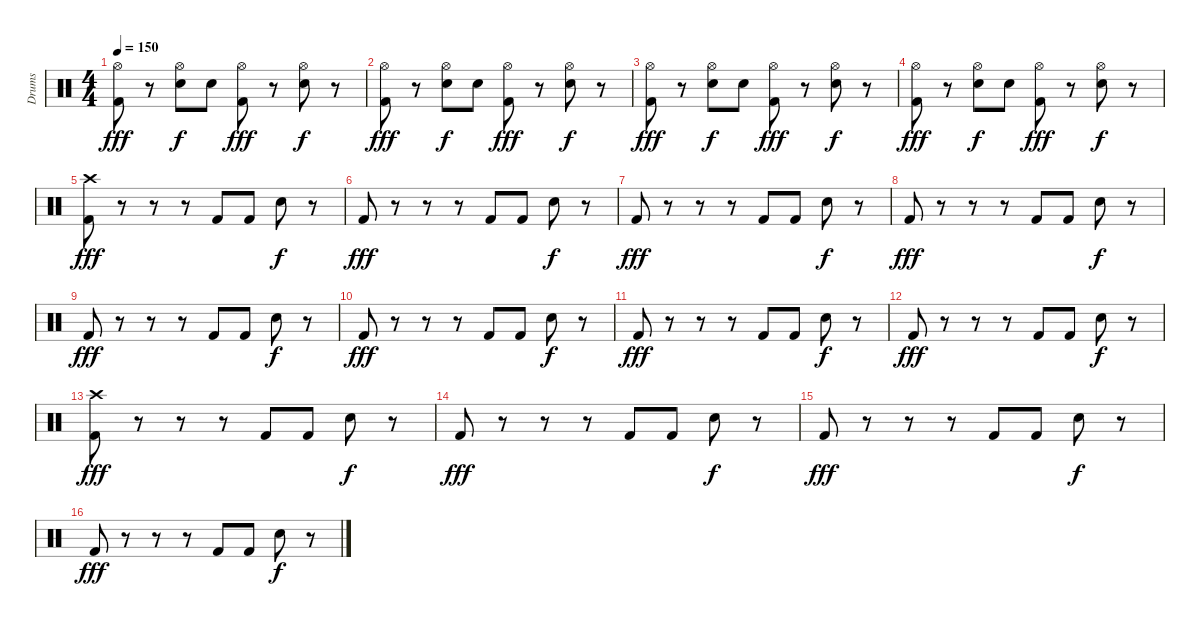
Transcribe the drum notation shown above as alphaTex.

\track ("Drums" "Drums") {instrument percussion}
\staff {score}
\articulation defaults
\ts (4 4)
\tempo 150
\clef neutral
\ks c
("Hi-Hat (open)" "Kick (hit) 2").8{dy fff} r.8 ("Hi-Hat (open)" "Snare (hit) 2").8{dy f} "Snare (hit) 2".8 ("Hi-Hat (open)" "Kick (hit) 2").8{dy fff} r.8 ("Hi-Hat (open)" "Snare (hit) 2").8{dy f} r.8 |
("Hi-Hat (open)" "Kick (hit) 2").8{dy fff} r.8 ("Hi-Hat (open)" "Snare (hit) 2").8{dy f} "Snare (hit) 2".8 ("Hi-Hat (open)" "Kick (hit) 2").8{dy fff} r.8 ("Hi-Hat (open)" "Snare (hit) 2").8{dy f} r.8 |
("Hi-Hat (open)" "Kick (hit) 2").8{dy fff} r.8 ("Hi-Hat (open)" "Snare (hit) 2").8{dy f} "Snare (hit) 2".8 ("Hi-Hat (open)" "Kick (hit) 2").8{dy fff} r.8 ("Hi-Hat (open)" "Snare (hit) 2").8{dy f} r.8 |
("Hi-Hat (open)" "Kick (hit) 2").8{dy fff} r.8 ("Hi-Hat (open)" "Snare (hit) 2").8{dy f} "Snare (hit) 2".8 ("Hi-Hat (open)" "Kick (hit) 2").8{dy fff} r.8 ("Hi-Hat (open)" "Snare (hit) 2").8{dy f} r.8 |
("Crash high (hit)" "Kick (hit) 2").8{dy fff} r.8 r.8 r.8 "Kick (hit) 2".8 "Kick (hit) 2".8 "Snare (hit) 2".8{dy f} r.8 |
"Kick (hit) 2".8{dy fff} r.8 r.8 r.8 "Kick (hit) 2".8 "Kick (hit) 2".8 "Snare (hit) 2".8{dy f} r.8 |
"Kick (hit) 2".8{dy fff} r.8 r.8 r.8 "Kick (hit) 2".8 "Kick (hit) 2".8 "Snare (hit) 2".8{dy f} r.8 |
"Kick (hit) 2".8{dy fff} r.8 r.8 r.8 "Kick (hit) 2".8 "Kick (hit) 2".8 "Snare (hit) 2".8{dy f} r.8 |
"Kick (hit) 2".8{dy fff} r.8 r.8 r.8 "Kick (hit) 2".8 "Kick (hit) 2".8 "Snare (hit) 2".8{dy f} r.8 |
"Kick (hit) 2".8{dy fff} r.8 r.8 r.8 "Kick (hit) 2".8 "Kick (hit) 2".8 "Snare (hit) 2".8{dy f} r.8 |
"Kick (hit) 2".8{dy fff} r.8 r.8 r.8 "Kick (hit) 2".8 "Kick (hit) 2".8 "Snare (hit) 2".8{dy f} r.8 |
"Kick (hit) 2".8{dy fff} r.8 r.8 r.8 "Kick (hit) 2".8 "Kick (hit) 2".8 "Snare (hit) 2".8{dy f} r.8 |
("Crash high (hit)" "Kick (hit) 2").8{dy fff} r.8 r.8 r.8 "Kick (hit) 2".8 "Kick (hit) 2".8 "Snare (hit) 2".8{dy f} r.8 |
"Kick (hit) 2".8{dy fff} r.8 r.8 r.8 "Kick (hit) 2".8 "Kick (hit) 2".8 "Snare (hit) 2".8{dy f} r.8 |
"Kick (hit) 2".8{dy fff} r.8 r.8 r.8 "Kick (hit) 2".8 "Kick (hit) 2".8 "Snare (hit) 2".8{dy f} r.8 |
"Kick (hit) 2".8{dy fff} r.8 r.8 r.8 "Kick (hit) 2".8 "Kick (hit) 2".8 "Snare (hit) 2".8{dy f} r.8
